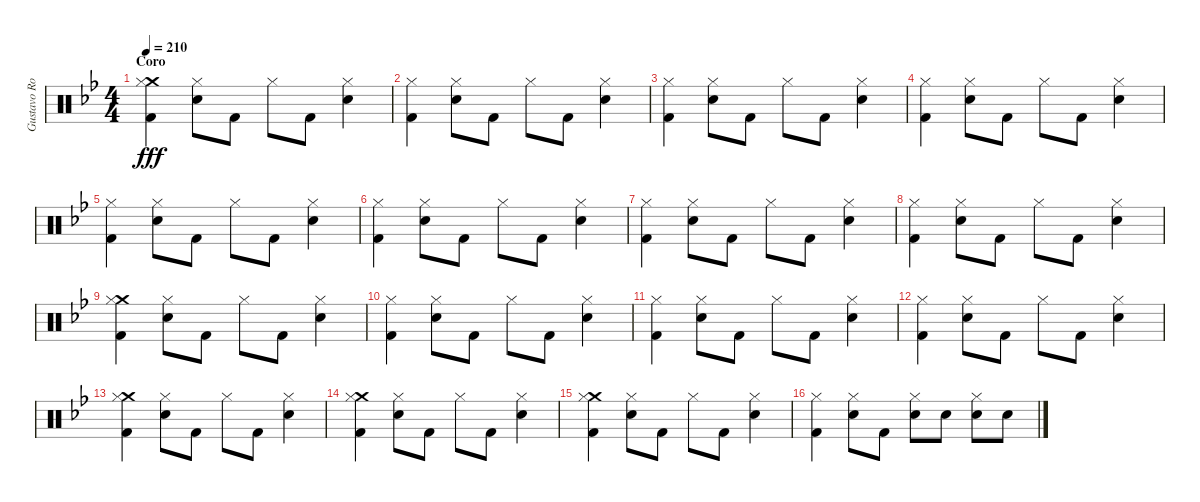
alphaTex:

\track ("Gustavo Rowek" "Gustavo Ro") {instrument percussion}
\staff {score}
\articulation defaults
\ts (4 4)
\section ("" "Coro")
\tempo 210
\clef neutral
\ks gminor
("Crash medium (hit)" "Hi-Hat (closed)" "Kick (hit) 2").4{dy fff} ("Hi-Hat (closed)" "Snare (hit) 2").8 "Kick (hit) 2".8 "Hi-Hat (closed)".8 "Kick (hit) 2".8 ("Hi-Hat (closed)" "Snare (hit) 2").4 |
("Hi-Hat (closed)" "Kick (hit) 2").4 ("Hi-Hat (closed)" "Snare (hit) 2").8 "Kick (hit) 2".8 "Hi-Hat (closed)".8 "Kick (hit) 2".8 ("Hi-Hat (closed)" "Snare (hit) 2").4 |
("Hi-Hat (closed)" "Kick (hit) 2").4 ("Hi-Hat (closed)" "Snare (hit) 2").8 "Kick (hit) 2".8 "Hi-Hat (closed)".8 "Kick (hit) 2".8 ("Hi-Hat (closed)" "Snare (hit) 2").4 |
("Hi-Hat (closed)" "Kick (hit) 2").4 ("Hi-Hat (closed)" "Snare (hit) 2").8 "Kick (hit) 2".8 "Hi-Hat (closed)".8 "Kick (hit) 2".8 ("Hi-Hat (closed)" "Snare (hit) 2").4 |
("Hi-Hat (closed)" "Kick (hit) 2").4 ("Hi-Hat (closed)" "Snare (hit) 2").8 "Kick (hit) 2".8 "Hi-Hat (closed)".8 "Kick (hit) 2".8 ("Hi-Hat (closed)" "Snare (hit) 2").4 |
("Hi-Hat (closed)" "Kick (hit) 2").4 ("Hi-Hat (closed)" "Snare (hit) 2").8 "Kick (hit) 2".8 "Hi-Hat (closed)".8 "Kick (hit) 2".8 ("Hi-Hat (closed)" "Snare (hit) 2").4 |
("Hi-Hat (closed)" "Kick (hit) 2").4 ("Hi-Hat (closed)" "Snare (hit) 2").8 "Kick (hit) 2".8 "Hi-Hat (closed)".8 "Kick (hit) 2".8 ("Hi-Hat (closed)" "Snare (hit) 2").4 |
("Hi-Hat (closed)" "Kick (hit) 2").4 ("Hi-Hat (closed)" "Snare (hit) 2").8 "Kick (hit) 2".8 "Hi-Hat (closed)".8 "Kick (hit) 2".8 ("Hi-Hat (closed)" "Snare (hit) 2").4 |
("Crash medium (hit)" "Hi-Hat (closed)" "Kick (hit) 2").4 ("Hi-Hat (closed)" "Snare (hit) 2").8 "Kick (hit) 2".8 "Hi-Hat (closed)".8 "Kick (hit) 2".8 ("Hi-Hat (closed)" "Snare (hit) 2").4 |
("Hi-Hat (closed)" "Kick (hit) 2").4 ("Hi-Hat (closed)" "Snare (hit) 2").8 "Kick (hit) 2".8 "Hi-Hat (closed)".8 "Kick (hit) 2".8 ("Hi-Hat (closed)" "Snare (hit) 2").4 |
("Hi-Hat (closed)" "Kick (hit) 2").4 ("Hi-Hat (closed)" "Snare (hit) 2").8 "Kick (hit) 2".8 "Hi-Hat (closed)".8 "Kick (hit) 2".8 ("Hi-Hat (closed)" "Snare (hit) 2").4 |
("Hi-Hat (closed)" "Kick (hit) 2").4 ("Hi-Hat (closed)" "Snare (hit) 2").8 "Kick (hit) 2".8 "Hi-Hat (closed)".8 "Kick (hit) 2".8 ("Hi-Hat (closed)" "Snare (hit) 2").4 |
("Crash medium (hit)" "Hi-Hat (closed)" "Kick (hit) 2").4 ("Hi-Hat (closed)" "Snare (hit) 2").8 "Kick (hit) 2".8 "Hi-Hat (closed)".8 "Kick (hit) 2".8 ("Hi-Hat (closed)" "Snare (hit) 2").4 |
("Crash medium (hit)" "Hi-Hat (closed)" "Kick (hit) 2").4 ("Hi-Hat (closed)" "Snare (hit) 2").8 "Kick (hit) 2".8 "Hi-Hat (closed)".8 "Kick (hit) 2".8 ("Hi-Hat (closed)" "Snare (hit) 2").4 |
("Crash medium (hit)" "Hi-Hat (closed)" "Kick (hit) 2").4 ("Hi-Hat (closed)" "Snare (hit) 2").8 "Kick (hit) 2".8 "Hi-Hat (closed)".8 "Kick (hit) 2".8 ("Hi-Hat (closed)" "Snare (hit) 2").4 |
("Hi-Hat (closed)" "Kick (hit) 2").4 ("Hi-Hat (closed)" "Snare (hit) 2").8 "Kick (hit) 2".8 ("Hi-Hat (closed)" "Snare (hit) 2").8 "Snare (hit) 2".8 ("Hi-Hat (closed)" "Snare (hit) 2").8 "Snare (hit) 2".8
